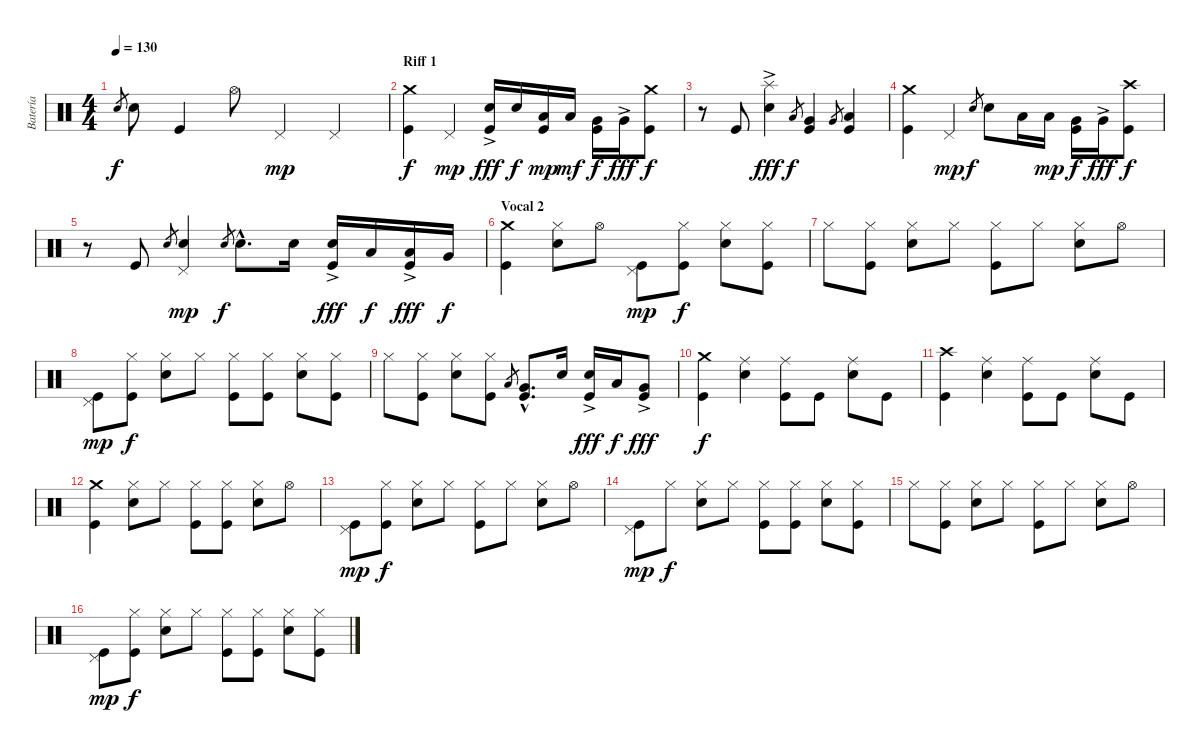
\track ("Batería" "Batería") {instrument percussion}
\staff {score}
\articulation defaults
\ts (4 4)
\tempo 130
\clef neutral
\ks c "Electric Snare (hit)".8{gr dy f} "Electric Snare (hit)".8 "Kick (hit)".4 "Hi-Hat (open)".8 "Pedal Hi-Hat (hit)".4{dy mp} "Pedal Hi-Hat (hit)".4
|
\section ("" "Riff 1")
("Kick (hit)" "Crash medium (hit)").4{dy f} "Pedal Hi-Hat (hit)".4{dy mp} ("Kick (hit)" "Electric Snare (hit)"{ac}).16{dy fff} "Electric Snare (hit)".16{dy f} ("Kick (hit)" "Low Tom (hit)").16{dy mp} "Low Tom (hit)".16{dy mf} ("Kick (hit)" "Very Low Tom (hit)").16{dy f} "Very Low Tom (hit)"{ac}.16{dy fff} ("Kick (hit)" "Crash medium (hit)").8{dy f} |
r.8 "Kick (hit)".8 ("Electric Snare (hit)" "Splash (hit)"{ac}).4{dy fff} "Low Tom (hit)".8{gr dy f} ("Kick (hit)" "Very Low Tom (hit)").4 "Very Low Tom (hit)".8{gr} ("Kick (hit)" "Low Floor Tom (hit)").4 |
("Kick (hit)" "Crash medium (hit)").4 "Pedal Hi-Hat (hit)".4{dy mp} "Electric Snare (hit)".8{gr dy f} "Electric Snare (hit)".8 "Low Tom (hit)".16 "Low Tom (hit)".16{dy mp} ("Kick (hit)" "Very Low Tom (hit)").16{dy f} "Very Low Tom (hit)"{ac}.16{dy fff} ("Kick (hit)" "Crash high (hit)").8{dy f} |
r.8 "Kick (hit)".8 "Electric Snare (hit)".8{gr} ("Electric Snare (hit)" "Pedal Hi-Hat (hit)").4{dy mp} "Electric Snare (hit)".8{gr dy f} "Electric Snare (hit)"{hac}.8{d} "Electric Snare (hit)".16 ("Kick (hit)" "Electric Snare (hit)"{ac}).16{dy fff} "Low Tom (hit)".16{dy f} ("Kick (hit)" "Low Tom (hit)"{ac}).16{dy fff} "Very Low Tom (hit)".16{dy f} |
\section ("" "Vocal 2")
("Kick (hit)" "Crash medium (hit)").4 ("Electric Snare (hit)" "Hi-Hat (closed)").8 "Hi-Hat (open)".8 ("Kick (hit)" "Pedal Hi-Hat (hit)").8{dy mp} ("Kick (hit)" "Hi-Hat (closed)").8{dy f} ("Electric Snare (hit)" "Hi-Hat (closed)").8 ("Kick (hit)" "Hi-Hat (closed)").8 |
"Hi-Hat (closed)".8 ("Kick (hit)" "Hi-Hat (closed)").8 ("Electric Snare (hit)" "Hi-Hat (closed)").8 "Hi-Hat (closed)".8 ("Kick (hit)" "Hi-Hat (closed)").8 "Hi-Hat (closed)".8 ("Electric Snare (hit)" "Hi-Hat (closed)").8 "Hi-Hat (open)".8 |
("Kick (hit)" "Pedal Hi-Hat (hit)").8{dy mp} ("Kick (hit)" "Hi-Hat (closed)").8{dy f} ("Electric Snare (hit)" "Hi-Hat (closed)").8 "Hi-Hat (closed)".8 ("Kick (hit)" "Hi-Hat (closed)").8 ("Kick (hit)" "Hi-Hat (closed)").8 ("Electric Snare (hit)" "Hi-Hat (closed)").8 ("Kick (hit)" "Hi-Hat (closed)").8 |
"Hi-Hat (closed)".8 ("Kick (hit)" "Hi-Hat (closed)").8 ("Electric Snare (hit)" "Hi-Hat (closed)").8 ("Kick (hit)" "Hi-Hat (closed)").8 "Low Tom (hit)".8{gr} ("Kick (hit)"{hac} "Very Low Tom (hit)"{hac}).8{d} "Electric Snare (hit)".16 ("Kick (hit)" "Electric Snare (hit)"{ac}).16{dy fff} "Low Tom (hit)".16{dy f} ("Kick (hit)" "Very Low Tom (hit)"{ac}).8{dy fff} |
("Kick (hit)" "Crash medium (hit)").4{dy f} ("Electric Snare (hit)" "Ride (middle)").4 ("Kick (hit)" "Ride (middle)").8 "Kick (hit)".8 ("Electric Snare (hit)" "Ride (middle)").8 "Kick (hit)".8 |
("Kick (hit)" "Crash high (hit)").4 ("Electric Snare (hit)" "Ride (middle)").4 ("Kick (hit)" "Ride (middle)").8 "Kick (hit)".8 ("Electric Snare (hit)" "Ride (middle)").8 "Kick (hit)".8 |
("Kick (hit)" "Crash medium (hit)").4 ("Electric Snare (hit)" "Hi-Hat (closed)").8 "Hi-Hat (closed)".8 ("Kick (hit)" "Hi-Hat (closed)").8 ("Kick (hit)" "Hi-Hat (closed)").8 ("Electric Snare (hit)" "Hi-Hat (closed)").8 "Hi-Hat (open)".8 |
("Kick (hit)" "Pedal Hi-Hat (hit)").8{dy mp} ("Kick (hit)" "Hi-Hat (closed)").8{dy f} ("Electric Snare (hit)" "Hi-Hat (closed)").8 "Hi-Hat (closed)".8 ("Kick (hit)" "Hi-Hat (closed)").8 "Hi-Hat (closed)".8 ("Electric Snare (hit)" "Hi-Hat (closed)").8 "Hi-Hat (open)".8 |
("Kick (hit)" "Pedal Hi-Hat (hit)").8{dy mp} "Hi-Hat (closed)".8{dy f} ("Electric Snare (hit)" "Hi-Hat (closed)").8 "Hi-Hat (closed)".8 ("Kick (hit)" "Hi-Hat (closed)").8 ("Kick (hit)" "Hi-Hat (closed)").8 ("Electric Snare (hit)" "Hi-Hat (closed)").8 ("Kick (hit)" "Hi-Hat (closed)").8 |
"Hi-Hat (closed)".8 ("Kick (hit)" "Hi-Hat (closed)").8 ("Electric Snare (hit)" "Hi-Hat (closed)").8 "Hi-Hat (closed)".8 ("Kick (hit)" "Hi-Hat (closed)").8 "Hi-Hat (closed)".8 ("Electric Snare (hit)" "Hi-Hat (closed)").8 "Hi-Hat (open)".8 |
("Kick (hit)" "Pedal Hi-Hat (hit)").8{dy mp} ("Kick (hit)" "Hi-Hat (closed)").8{dy f} ("Electric Snare (hit)" "Hi-Hat (closed)").8 "Hi-Hat (closed)".8 ("Kick (hit)" "Hi-Hat (closed)").8 ("Kick (hit)" "Hi-Hat (closed)").8 ("Electric Snare (hit)" "Hi-Hat (closed)").8 ("Kick (hit)" "Hi-Hat (closed)").8
